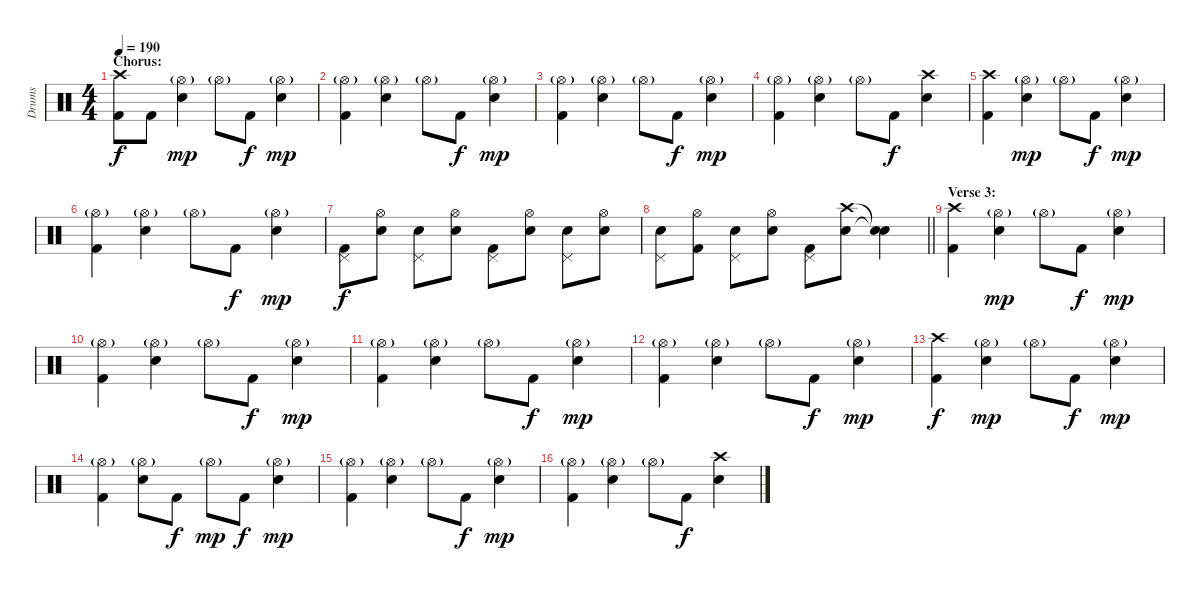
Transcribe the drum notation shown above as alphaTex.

\track ("Drums" "Drums") {instrument percussion}
\staff {score}
\articulation defaults
\ts (4 4)
\section ("" "Chorus:")
\tempo 190
\clef neutral
\ks c
("Crash high (hit)" "Kick (hit) 2").8{dy f} "Kick (hit) 2".8 ("Hi-Hat (open)"{g} "Electric Snare (hit)").4{dy mp} "Hi-Hat (open)"{g}.8 "Kick (hit) 2".8{dy f} ("Hi-Hat (open)"{g} "Electric Snare (hit)").4{dy mp} |
("Hi-Hat (open)"{g} "Kick (hit) 2").4 ("Hi-Hat (open)"{g} "Electric Snare (hit)").4 "Hi-Hat (open)"{g}.8 "Kick (hit) 2".8{dy f} ("Hi-Hat (open)"{g} "Electric Snare (hit)").4{dy mp} |
("Hi-Hat (open)"{g} "Kick (hit) 2").4 ("Hi-Hat (open)"{g} "Electric Snare (hit)").4 "Hi-Hat (open)"{g}.8 "Kick (hit) 2".8{dy f} ("Hi-Hat (open)"{g} "Electric Snare (hit)").4{dy mp} |
("Hi-Hat (open)"{g} "Kick (hit) 2").4 ("Hi-Hat (open)"{g} "Electric Snare (hit)").4 "Hi-Hat (open)"{g}.8 "Kick (hit) 2".8{dy f} ("Crash high (hit)" "Electric Snare (hit)").4 |
("Crash high (hit)" "Kick (hit) 2").4 ("Hi-Hat (open)"{g} "Electric Snare (hit)").4{dy mp} "Hi-Hat (open)"{g}.8 "Kick (hit) 2".8{dy f} ("Hi-Hat (open)"{g} "Electric Snare (hit)").4{dy mp} |
("Hi-Hat (open)"{g} "Kick (hit) 2").4 ("Hi-Hat (open)"{g} "Electric Snare (hit)").4 "Hi-Hat (open)"{g}.8 "Kick (hit) 2".8{dy f} ("Hi-Hat (open)"{g} "Electric Snare (hit)").4{dy mp} |
("Pedal Hi-Hat (hit)" "Kick (hit) 2").8{dy f} ("Hi-Hat (open)" "Electric Snare (hit)").8 ("Pedal Hi-Hat (hit)" "Electric Snare (hit)").8 ("Hi-Hat (open)" "Electric Snare (hit)").8 ("Pedal Hi-Hat (hit)" "Kick (hit) 2").8 ("Hi-Hat (open)" "Electric Snare (hit)").8 ("Pedal Hi-Hat (hit)" "Electric Snare (hit)").8 ("Hi-Hat (open)" "Electric Snare (hit)").8 |
\barLineRight lightlight
("Pedal Hi-Hat (hit)" "Electric Snare (hit)").8 ("Hi-Hat (open)" "Kick (hit) 2").8 ("Pedal Hi-Hat (hit)" "Electric Snare (hit)").8 ("Hi-Hat (open)" "Electric Snare (hit)").8 ("Pedal Hi-Hat (hit)" "Kick (hit) 2").8 ("Crash high (hit)" "Electric Snare (hit)").8 ("Snare (hit)"{t} "Snare (hit)"{t}).4 |
\section ("" "Verse 3:")
("Crash high (hit)" "Kick (hit) 2").4 ("Hi-Hat (open)"{g} "Electric Snare (hit)").4{dy mp} "Hi-Hat (open)"{g}.8 "Kick (hit) 2".8{dy f} ("Hi-Hat (open)"{g} "Electric Snare (hit)").4{dy mp} |
("Hi-Hat (open)"{g} "Kick (hit) 2").4 ("Hi-Hat (open)"{g} "Electric Snare (hit)").4 "Hi-Hat (open)"{g}.8 "Kick (hit) 2".8{dy f} ("Hi-Hat (open)"{g} "Electric Snare (hit)").4{dy mp} |
("Hi-Hat (open)"{g} "Kick (hit) 2").4 ("Hi-Hat (open)"{g} "Electric Snare (hit)").4 "Hi-Hat (open)"{g}.8 "Kick (hit) 2".8{dy f} ("Hi-Hat (open)"{g} "Electric Snare (hit)").4{dy mp} |
("Hi-Hat (open)"{g} "Kick (hit) 2").4 ("Hi-Hat (open)"{g} "Electric Snare (hit)").4 "Hi-Hat (open)"{g}.8 "Kick (hit) 2".8{dy f} ("Hi-Hat (open)"{g} "Electric Snare (hit)").4{dy mp} |
("Crash high (hit)" "Kick (hit) 2").4{dy f} ("Hi-Hat (open)"{g} "Electric Snare (hit)").4{dy mp} "Hi-Hat (open)"{g}.8 "Kick (hit) 2".8{dy f} ("Hi-Hat (open)"{g} "Electric Snare (hit)").4{dy mp} |
("Hi-Hat (open)"{g} "Kick (hit) 2").4 ("Hi-Hat (open)"{g} "Electric Snare (hit)").8 "Kick (hit) 2".8{dy f} "Hi-Hat (open)"{g}.8{dy mp} "Kick (hit) 2".8{dy f} ("Hi-Hat (open)"{g} "Electric Snare (hit)").4{dy mp} |
("Hi-Hat (open)"{g} "Kick (hit) 2").4 ("Hi-Hat (open)"{g} "Electric Snare (hit)").4 "Hi-Hat (open)"{g}.8 "Kick (hit) 2".8{dy f} ("Hi-Hat (open)"{g} "Electric Snare (hit)").4{dy mp} |
("Hi-Hat (open)"{g} "Kick (hit) 2").4 ("Hi-Hat (open)"{g} "Electric Snare (hit)").4 "Hi-Hat (open)"{g}.8 "Kick (hit) 2".8{dy f} ("Crash high (hit)" "Electric Snare (hit)").4
